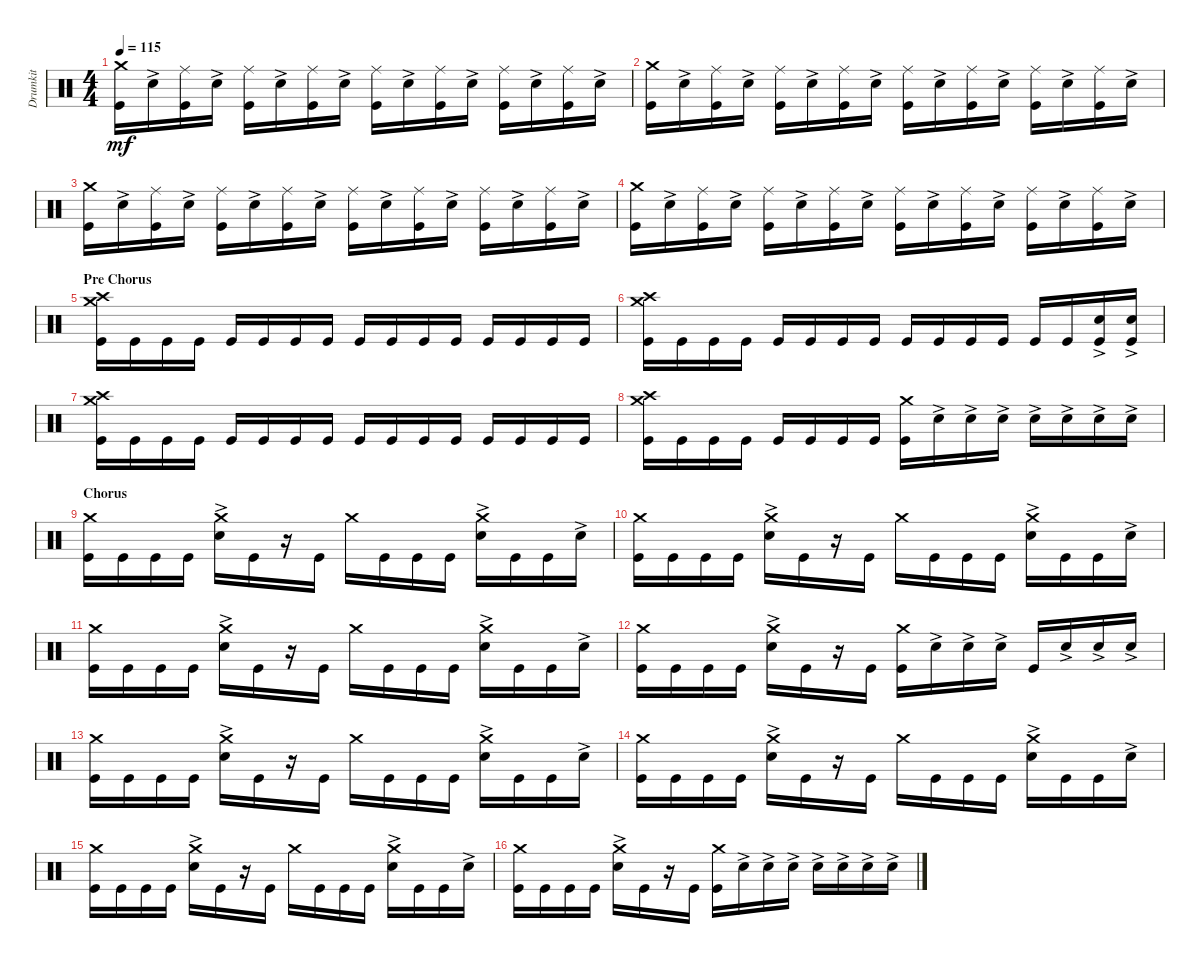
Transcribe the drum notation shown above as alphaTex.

\track ("Drumkit" "Drumkit") {instrument percussion}
\staff {score}
\articulation defaults
\ts (4 4)
\tempo 115
\clef neutral
\ks c
("Kick (hit)" "Crash medium (hit)").16{dy mf} "Snare (hit) 2"{ac}.16 ("Kick (hit)" "Ride (middle)").16 "Snare (hit) 2"{ac}.16 ("Kick (hit)" "Ride (middle)").16 "Snare (hit) 2"{ac}.16 ("Kick (hit)" "Ride (middle)").16 "Snare (hit) 2"{ac}.16 ("Kick (hit)" "Ride (middle)").16 "Snare (hit) 2"{ac}.16 ("Kick (hit)" "Ride (middle)").16 "Snare (hit) 2"{ac}.16 ("Kick (hit)" "Ride (middle)").16 "Snare (hit) 2"{ac}.16 ("Kick (hit)" "Ride (middle)").16 "Snare (hit) 2"{ac}.16 |
("Kick (hit)" "Crash medium (hit)").16 "Snare (hit) 2"{ac}.16 ("Kick (hit)" "Ride (middle)").16 "Snare (hit) 2"{ac}.16 ("Kick (hit)" "Ride (middle)").16 "Snare (hit) 2"{ac}.16 ("Kick (hit)" "Ride (middle)").16 "Snare (hit) 2"{ac}.16 ("Kick (hit)" "Ride (middle)").16 "Snare (hit) 2"{ac}.16 ("Kick (hit)" "Ride (middle)").16 "Snare (hit) 2"{ac}.16 ("Kick (hit)" "Ride (middle)").16 "Snare (hit) 2"{ac}.16 ("Kick (hit)" "Ride (middle)").16 "Snare (hit) 2"{ac}.16 |
("Kick (hit)" "Crash medium (hit)").16 "Snare (hit) 2"{ac}.16 ("Kick (hit)" "Ride (middle)").16 "Snare (hit) 2"{ac}.16 ("Kick (hit)" "Ride (middle)").16 "Snare (hit) 2"{ac}.16 ("Kick (hit)" "Ride (middle)").16 "Snare (hit) 2"{ac}.16 ("Kick (hit)" "Ride (middle)").16 "Snare (hit) 2"{ac}.16 ("Kick (hit)" "Ride (middle)").16 "Snare (hit) 2"{ac}.16 ("Kick (hit)" "Ride (middle)").16 "Snare (hit) 2"{ac}.16 ("Kick (hit)" "Ride (middle)").16 "Snare (hit) 2"{ac}.16 |
("Kick (hit)" "Crash medium (hit)").16 "Snare (hit) 2"{ac}.16 ("Kick (hit)" "Ride (middle)").16 "Snare (hit) 2"{ac}.16 ("Kick (hit)" "Ride (middle)").16 "Snare (hit) 2"{ac}.16 ("Kick (hit)" "Ride (middle)").16 "Snare (hit) 2"{ac}.16 ("Kick (hit)" "Ride (middle)").16 "Snare (hit) 2"{ac}.16 ("Kick (hit)" "Ride (middle)").16 "Snare (hit) 2"{ac}.16 ("Kick (hit)" "Ride (middle)").16 "Snare (hit) 2"{ac}.16 ("Kick (hit)" "Ride (middle)").16 "Snare (hit) 2"{ac}.16 |
\section ("" "Pre Chorus")
("Kick (hit)" "Crash medium (hit)" "Crash high (hit)").16 "Kick (hit)".16 "Kick (hit)".16 "Kick (hit)".16 "Kick (hit)".16 "Kick (hit)".16 "Kick (hit)".16 "Kick (hit)".16 "Kick (hit)".16 "Kick (hit)".16 "Kick (hit)".16 "Kick (hit)".16 "Kick (hit)".16 "Kick (hit)".16 "Kick (hit)".16 "Kick (hit)".16 |
("Kick (hit)" "Crash medium (hit)" "Crash high (hit)").16 "Kick (hit)".16 "Kick (hit)".16 "Kick (hit)".16 "Kick (hit)".16 "Kick (hit)".16 "Kick (hit)".16 "Kick (hit)".16 "Kick (hit)".16 "Kick (hit)".16 "Kick (hit)".16 "Kick (hit)".16 "Kick (hit)".16 "Kick (hit)".16 ("Kick (hit)" "Snare (hit) 2"{ac}).16 ("Kick (hit)" "Snare (hit) 2"{ac}).16 |
("Kick (hit)" "Crash medium (hit)" "Crash high (hit)").16 "Kick (hit)".16 "Kick (hit)".16 "Kick (hit)".16 "Kick (hit)".16 "Kick (hit)".16 "Kick (hit)".16 "Kick (hit)".16 "Kick (hit)".16 "Kick (hit)".16 "Kick (hit)".16 "Kick (hit)".16 "Kick (hit)".16 "Kick (hit)".16 "Kick (hit)".16 "Kick (hit)".16 |
("Kick (hit)" "Crash medium (hit)" "Crash high (hit)").16 "Kick (hit)".16 "Kick (hit)".16 "Kick (hit)".16 "Kick (hit)".16 "Kick (hit)".16 "Kick (hit)".16 "Kick (hit)".16 ("Kick (hit)" "Crash medium (hit)").16 "Snare (hit) 2"{ac}.16 "Snare (hit) 2"{ac}.16 "Snare (hit) 2"{ac}.16 "Snare (hit) 2"{ac}.16 "Snare (hit) 2"{ac}.16 "Snare (hit) 2"{ac}.16 "Snare (hit) 2"{ac}.16 |
\section ("" "Chorus")
("Crash medium (hit)" "Kick (hit)").16 "Kick (hit)".16 "Kick (hit)".16 "Kick (hit)".16 ("Crash medium (hit)" "Snare (hit) 2"{ac}).16 "Kick (hit)".16 r.16 "Kick (hit)".16 "Crash medium (hit)".16 "Kick (hit)".16 "Kick (hit)".16 "Kick (hit)".16 ("Crash medium (hit)" "Snare (hit) 2"{ac}).16 "Kick (hit)".16 "Kick (hit)".16 "Snare (hit) 2"{ac}.16 |
("Crash medium (hit)" "Kick (hit)").16 "Kick (hit)".16 "Kick (hit)".16 "Kick (hit)".16 ("Crash medium (hit)" "Snare (hit) 2"{ac}).16 "Kick (hit)".16 r.16 "Kick (hit)".16 "Crash medium (hit)".16 "Kick (hit)".16 "Kick (hit)".16 "Kick (hit)".16 ("Crash medium (hit)" "Snare (hit) 2"{ac}).16 "Kick (hit)".16 "Kick (hit)".16 "Snare (hit) 2"{ac}.16 |
("Crash medium (hit)" "Kick (hit)").16 "Kick (hit)".16 "Kick (hit)".16 "Kick (hit)".16 ("Crash medium (hit)" "Snare (hit) 2"{ac}).16 "Kick (hit)".16 r.16 "Kick (hit)".16 "Crash medium (hit)".16 "Kick (hit)".16 "Kick (hit)".16 "Kick (hit)".16 ("Crash medium (hit)" "Snare (hit) 2"{ac}).16 "Kick (hit)".16 "Kick (hit)".16 "Snare (hit) 2"{ac}.16 |
("Crash medium (hit)" "Kick (hit)").16 "Kick (hit)".16 "Kick (hit)".16 "Kick (hit)".16 ("Crash medium (hit)" "Snare (hit) 2"{ac}).16 "Kick (hit)".16 r.16 "Kick (hit)".16 ("Kick (hit)" "Crash medium (hit)").16 "Snare (hit) 2"{ac}.16 "Snare (hit) 2"{ac}.16 "Snare (hit) 2"{ac}.16 "Kick (hit)".16 "Snare (hit) 2"{ac}.16 "Snare (hit) 2"{ac}.16 "Snare (hit) 2"{ac}.16 |
("Crash medium (hit)" "Kick (hit)").16 "Kick (hit)".16 "Kick (hit)".16 "Kick (hit)".16 ("Crash medium (hit)" "Snare (hit) 2"{ac}).16 "Kick (hit)".16 r.16 "Kick (hit)".16 "Crash medium (hit)".16 "Kick (hit)".16 "Kick (hit)".16 "Kick (hit)".16 ("Crash medium (hit)" "Snare (hit) 2"{ac}).16 "Kick (hit)".16 "Kick (hit)".16 "Snare (hit) 2"{ac}.16 |
("Crash medium (hit)" "Kick (hit)").16 "Kick (hit)".16 "Kick (hit)".16 "Kick (hit)".16 ("Crash medium (hit)" "Snare (hit) 2"{ac}).16 "Kick (hit)".16 r.16 "Kick (hit)".16 "Crash medium (hit)".16 "Kick (hit)".16 "Kick (hit)".16 "Kick (hit)".16 ("Crash medium (hit)" "Snare (hit) 2"{ac}).16 "Kick (hit)".16 "Kick (hit)".16 "Snare (hit) 2"{ac}.16 |
("Crash medium (hit)" "Kick (hit)").16 "Kick (hit)".16 "Kick (hit)".16 "Kick (hit)".16 ("Crash medium (hit)" "Snare (hit) 2"{ac}).16 "Kick (hit)".16 r.16 "Kick (hit)".16 "Crash medium (hit)".16 "Kick (hit)".16 "Kick (hit)".16 "Kick (hit)".16 ("Crash medium (hit)" "Snare (hit) 2"{ac}).16 "Kick (hit)".16 "Kick (hit)".16 "Snare (hit) 2"{ac}.16 |
("Crash medium (hit)" "Kick (hit)").16 "Kick (hit)".16 "Kick (hit)".16 "Kick (hit)".16 ("Crash medium (hit)" "Snare (hit) 2"{ac}).16 "Kick (hit)".16 r.16 "Kick (hit)".16 ("Kick (hit)" "Crash medium (hit)").16 "Snare (hit) 2"{ac}.16 "Snare (hit) 2"{ac}.16 "Snare (hit) 2"{ac}.16 "Snare (hit) 2"{ac}.16 "Snare (hit) 2"{ac}.16 "Snare (hit) 2"{ac}.16 "Snare (hit) 2"{ac}.16
